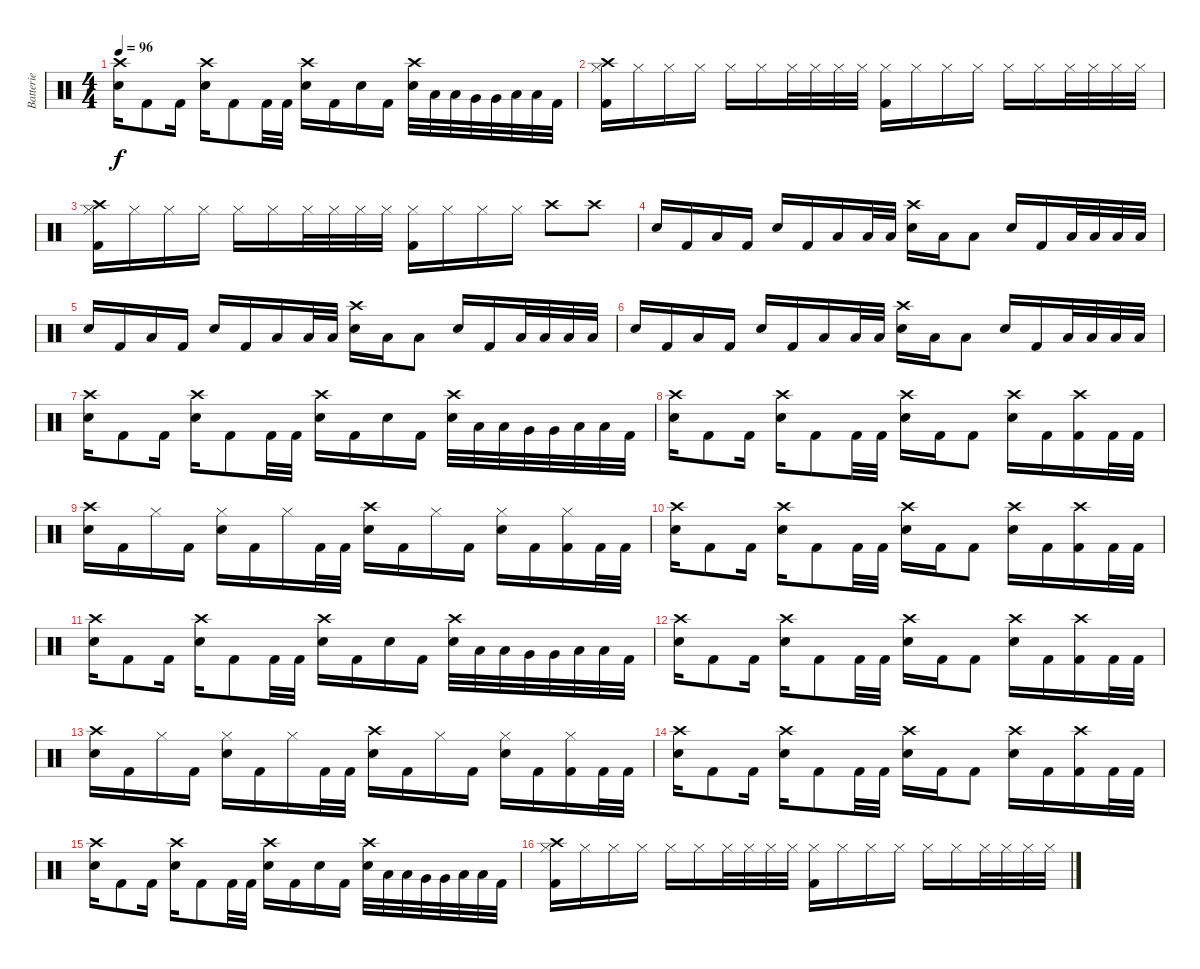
\track ("Batterie" "Batterie") {instrument percussion}
\staff {score}
\articulation defaults
\ts (4 4)
\tempo 96
\clef neutral
\ks c
("Crash high (hit)" "Snare (hit) 2").16{dy f} "Kick (hit) 2".8 "Kick (hit) 2".16 ("Crash high (hit)" "Snare (hit) 2").16 "Kick (hit) 2".8 "Kick (hit) 2".32 "Kick (hit) 2".32 ("Crash high (hit)" "Snare (hit) 2").16 "Kick (hit) 2".16 "Snare (hit) 2".16 "Kick (hit) 2".16 ("Crash high (hit)" "Snare (hit) 2").32 "Low Tom (hit)".32 "Low Tom (hit)".32 "Very Low Tom (hit)".32 "Very Low Tom (hit)".32 "Low Floor Tom (hit)".32 "Low Floor Tom (hit)".32 "Kick (hit) 2".32 |
("Hi-Hat (closed)" "Crash high (hit)" "Kick (hit) 2").16 "Hi-Hat (closed)".16 "Hi-Hat (closed)".16 "Hi-Hat (closed)".16 "Hi-Hat (closed)".16 "Hi-Hat (closed)".16 "Hi-Hat (closed)".32 "Hi-Hat (closed)".32 "Hi-Hat (closed)".32 "Hi-Hat (closed)".32 ("Hi-Hat (closed)" "Kick (hit) 2").16 "Hi-Hat (closed)".16 "Hi-Hat (closed)".16 "Hi-Hat (closed)".16 "Hi-Hat (closed)".16 "Hi-Hat (closed)".16 "Hi-Hat (closed)".32 "Hi-Hat (closed)".32 "Hi-Hat (closed)".32 "Hi-Hat (closed)".32 |
("Hi-Hat (closed)" "Crash high (hit)" "Kick (hit) 2").16 "Hi-Hat (closed)".16 "Hi-Hat (closed)".16 "Hi-Hat (closed)".16 "Hi-Hat (closed)".16 "Hi-Hat (closed)".16 "Hi-Hat (closed)".32 "Hi-Hat (closed)".32 "Hi-Hat (closed)".32 "Hi-Hat (closed)".32 ("Hi-Hat (closed)" "Kick (hit) 2").16 "Hi-Hat (closed)".16 "Hi-Hat (closed)".16 "Hi-Hat (closed)".16 "Crash high (hit)".8 "Crash high (hit)".8 |
"Snare (hit) 2".16 "Kick (hit) 2".16 "Low Floor Tom (hit)".16 "Kick (hit) 2".16 "Snare (hit) 2".16 "Kick (hit) 2".16 "Low Floor Tom (hit)".16 "Low Floor Tom (hit)".32 "Low Floor Tom (hit)".32 ("Crash high (hit)" "Snare (hit) 2").16 "Low Floor Tom (hit)".16 "Low Floor Tom (hit)".8 "Snare (hit) 2".16 "Kick (hit) 2".16 "Low Floor Tom (hit)".32 "Low Floor Tom (hit)".32 "Low Floor Tom (hit)".32 "Low Floor Tom (hit)".32 |
"Snare (hit) 2".16 "Kick (hit) 2".16 "Low Floor Tom (hit)".16 "Kick (hit) 2".16 "Snare (hit) 2".16 "Kick (hit) 2".16 "Low Floor Tom (hit)".16 "Low Floor Tom (hit)".32 "Low Floor Tom (hit)".32 ("Crash high (hit)" "Snare (hit) 2").16 "Low Floor Tom (hit)".16 "Low Floor Tom (hit)".8 "Snare (hit) 2".16 "Kick (hit) 2".16 "Low Floor Tom (hit)".32 "Low Floor Tom (hit)".32 "Low Floor Tom (hit)".32 "Low Floor Tom (hit)".32 |
"Snare (hit) 2".16 "Kick (hit) 2".16 "Low Floor Tom (hit)".16 "Kick (hit) 2".16 "Snare (hit) 2".16 "Kick (hit) 2".16 "Low Floor Tom (hit)".16 "Low Floor Tom (hit)".32 "Low Floor Tom (hit)".32 ("Crash high (hit)" "Snare (hit) 2").16 "Low Floor Tom (hit)".16 "Low Floor Tom (hit)".8 "Snare (hit) 2".16 "Kick (hit) 2".16 "Low Floor Tom (hit)".32 "Low Floor Tom (hit)".32 "Low Floor Tom (hit)".32 "Low Floor Tom (hit)".32 |
("Crash high (hit)" "Snare (hit) 2").16 "Kick (hit) 2".8 "Kick (hit) 2".16 ("Crash high (hit)" "Snare (hit) 2").16 "Kick (hit) 2".8 "Kick (hit) 2".32 "Kick (hit) 2".32 ("Crash high (hit)" "Snare (hit) 2").16 "Kick (hit) 2".16 "Snare (hit) 2".16 "Kick (hit) 2".16 ("Crash high (hit)" "Snare (hit) 2").32 "Low Tom (hit)".32 "Low Tom (hit)".32 "Very Low Tom (hit)".32 "Very Low Tom (hit)".32 "Low Floor Tom (hit)".32 "Low Floor Tom (hit)".32 "Kick (hit) 2".32 |
("Crash high (hit)" "Snare (hit) 2").16 "Kick (hit) 2".8 "Kick (hit) 2".16 ("Crash high (hit)" "Snare (hit) 2").16 "Kick (hit) 2".8 "Kick (hit) 2".32 "Kick (hit) 2".32 ("Crash high (hit)" "Snare (hit) 2").16 "Kick (hit) 2".16 "Kick (hit) 2".8 ("Crash high (hit)" "Snare (hit) 2").16 "Kick (hit) 2".16 ("Crash high (hit)" "Kick (hit) 2").16 "Kick (hit) 2".32 "Kick (hit) 2".32 |
("Crash high (hit)" "Snare (hit) 2").16 "Kick (hit) 2".16 "Hi-Hat (closed)".16 "Kick (hit) 2".16 ("Hi-Hat (closed)" "Snare (hit) 2").16 "Kick (hit) 2".16 "Hi-Hat (closed)".16 "Kick (hit) 2".32 "Kick (hit) 2".32 ("Crash high (hit)" "Snare (hit) 2").16 "Kick (hit) 2".16 "Hi-Hat (closed)".16 "Kick (hit) 2".16 ("Hi-Hat (closed)" "Snare (hit) 2").16 "Kick (hit) 2".16 ("Hi-Hat (closed)" "Kick (hit) 2").16 "Kick (hit) 2".32 "Kick (hit) 2".32 |
("Crash high (hit)" "Snare (hit) 2").16 "Kick (hit) 2".8 "Kick (hit) 2".16 ("Crash high (hit)" "Snare (hit) 2").16 "Kick (hit) 2".8 "Kick (hit) 2".32 "Kick (hit) 2".32 ("Crash high (hit)" "Snare (hit) 2").16 "Kick (hit) 2".16 "Kick (hit) 2".8 ("Crash high (hit)" "Snare (hit) 2").16 "Kick (hit) 2".16 ("Crash high (hit)" "Kick (hit) 2").16 "Kick (hit) 2".32 "Kick (hit) 2".32 |
("Crash high (hit)" "Snare (hit) 2").16 "Kick (hit) 2".8 "Kick (hit) 2".16 ("Crash high (hit)" "Snare (hit) 2").16 "Kick (hit) 2".8 "Kick (hit) 2".32 "Kick (hit) 2".32 ("Crash high (hit)" "Snare (hit) 2").16 "Kick (hit) 2".16 "Snare (hit) 2".16 "Kick (hit) 2".16 ("Crash high (hit)" "Snare (hit) 2").32 "Low Tom (hit)".32 "Low Tom (hit)".32 "Very Low Tom (hit)".32 "Very Low Tom (hit)".32 "Low Floor Tom (hit)".32 "Low Floor Tom (hit)".32 "Kick (hit) 2".32 |
("Crash high (hit)" "Snare (hit) 2").16 "Kick (hit) 2".8 "Kick (hit) 2".16 ("Crash high (hit)" "Snare (hit) 2").16 "Kick (hit) 2".8 "Kick (hit) 2".32 "Kick (hit) 2".32 ("Crash high (hit)" "Snare (hit) 2").16 "Kick (hit) 2".16 "Kick (hit) 2".8 ("Crash high (hit)" "Snare (hit) 2").16 "Kick (hit) 2".16 ("Crash high (hit)" "Kick (hit) 2").16 "Kick (hit) 2".32 "Kick (hit) 2".32 |
("Crash high (hit)" "Snare (hit) 2").16 "Kick (hit) 2".16 "Hi-Hat (closed)".16 "Kick (hit) 2".16 ("Hi-Hat (closed)" "Snare (hit) 2").16 "Kick (hit) 2".16 "Hi-Hat (closed)".16 "Kick (hit) 2".32 "Kick (hit) 2".32 ("Crash high (hit)" "Snare (hit) 2").16 "Kick (hit) 2".16 "Hi-Hat (closed)".16 "Kick (hit) 2".16 ("Hi-Hat (closed)" "Snare (hit) 2").16 "Kick (hit) 2".16 ("Hi-Hat (closed)" "Kick (hit) 2").16 "Kick (hit) 2".32 "Kick (hit) 2".32 |
("Crash high (hit)" "Snare (hit) 2").16 "Kick (hit) 2".8 "Kick (hit) 2".16 ("Crash high (hit)" "Snare (hit) 2").16 "Kick (hit) 2".8 "Kick (hit) 2".32 "Kick (hit) 2".32 ("Crash high (hit)" "Snare (hit) 2").16 "Kick (hit) 2".16 "Kick (hit) 2".8 ("Crash high (hit)" "Snare (hit) 2").16 "Kick (hit) 2".16 ("Crash high (hit)" "Kick (hit) 2").16 "Kick (hit) 2".32 "Kick (hit) 2".32 |
("Crash high (hit)" "Snare (hit) 2").16 "Kick (hit) 2".8 "Kick (hit) 2".16 ("Crash high (hit)" "Snare (hit) 2").16 "Kick (hit) 2".8 "Kick (hit) 2".32 "Kick (hit) 2".32 ("Crash high (hit)" "Snare (hit) 2").16 "Kick (hit) 2".16 "Snare (hit) 2".16 "Kick (hit) 2".16 ("Crash high (hit)" "Snare (hit) 2").32 "Low Tom (hit)".32 "Low Tom (hit)".32 "Very Low Tom (hit)".32 "Very Low Tom (hit)".32 "Low Floor Tom (hit)".32 "Low Floor Tom (hit)".32 "Kick (hit) 2".32 |
("Hi-Hat (closed)" "Crash high (hit)" "Kick (hit) 2").16 "Hi-Hat (closed)".16 "Hi-Hat (closed)".16 "Hi-Hat (closed)".16 "Hi-Hat (closed)".16 "Hi-Hat (closed)".16 "Hi-Hat (closed)".32 "Hi-Hat (closed)".32 "Hi-Hat (closed)".32 "Hi-Hat (closed)".32 ("Hi-Hat (closed)" "Kick (hit) 2").16 "Hi-Hat (closed)".16 "Hi-Hat (closed)".16 "Hi-Hat (closed)".16 "Hi-Hat (closed)".16 "Hi-Hat (closed)".16 "Hi-Hat (closed)".32 "Hi-Hat (closed)".32 "Hi-Hat (closed)".32 "Hi-Hat (closed)".32
